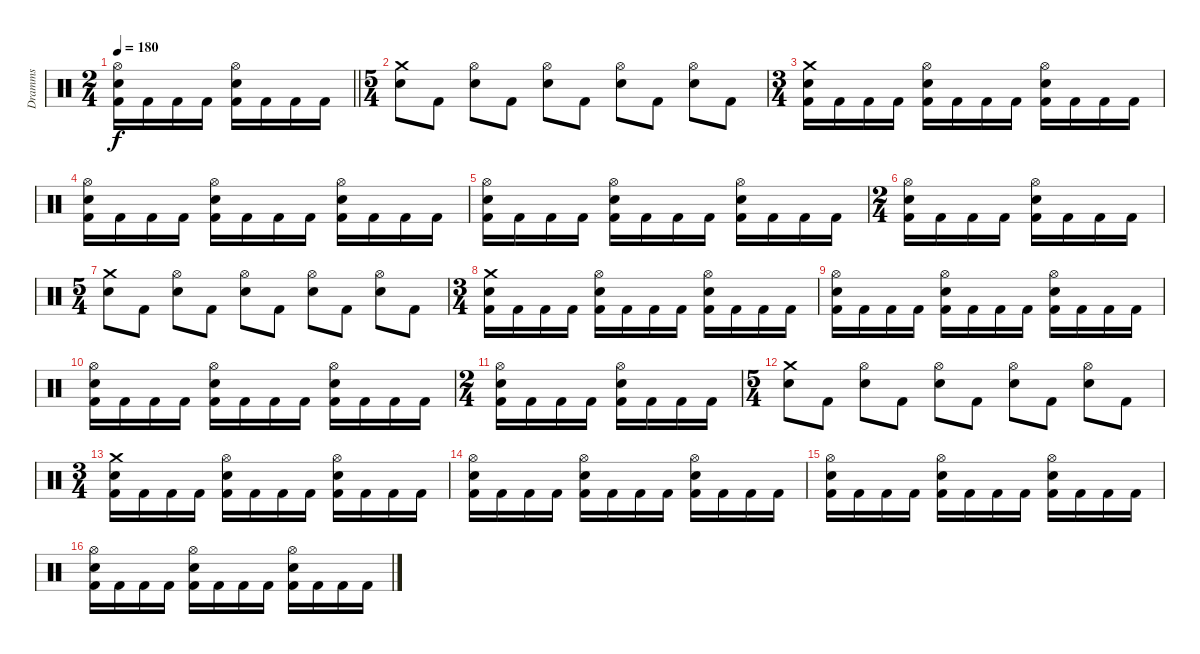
\track ("Dramms" "Dramms") {instrument percussion}
\staff {score}
\articulation defaults
\ts (2 4)
\tempo 180
\clef neutral
\barLineRight lightlight
\ks c
("Hi-Hat (open)" "Electric Snare (hit)" "Kick (hit) 2").16{dy f} "Kick (hit) 2".16 "Kick (hit) 2".16 "Kick (hit) 2".16 ("Hi-Hat (open)" "Electric Snare (hit)" "Kick (hit) 2").16 "Kick (hit) 2".16 "Kick (hit) 2".16 "Kick (hit) 2".16 |
\ts (5 4)
("Crash medium (hit)" "Electric Snare (hit)").8 "Kick (hit) 2".8 ("Hi-Hat (open)" "Electric Snare (hit)").8 "Kick (hit) 2".8 ("Hi-Hat (open)" "Electric Snare (hit)").8 "Kick (hit) 2".8 ("Hi-Hat (open)" "Electric Snare (hit)").8 "Kick (hit) 2".8 ("Hi-Hat (open)" "Electric Snare (hit)").8 "Kick (hit) 2".8 |
\ts (3 4)
("Crash medium (hit)" "Electric Snare (hit)" "Kick (hit) 2").16 "Kick (hit) 2".16 "Kick (hit) 2".16 "Kick (hit) 2".16 ("Hi-Hat (open)" "Electric Snare (hit)" "Kick (hit) 2").16 "Kick (hit) 2".16 "Kick (hit) 2".16 "Kick (hit) 2".16 ("Hi-Hat (open)" "Electric Snare (hit)" "Kick (hit) 2").16 "Kick (hit) 2".16 "Kick (hit) 2".16 "Kick (hit) 2".16 |
("Hi-Hat (open)" "Electric Snare (hit)" "Kick (hit) 2").16 "Kick (hit) 2".16 "Kick (hit) 2".16 "Kick (hit) 2".16 ("Hi-Hat (open)" "Electric Snare (hit)" "Kick (hit) 2").16 "Kick (hit) 2".16 "Kick (hit) 2".16 "Kick (hit) 2".16 ("Hi-Hat (open)" "Electric Snare (hit)" "Kick (hit) 2").16 "Kick (hit) 2".16 "Kick (hit) 2".16 "Kick (hit) 2".16 |
("Hi-Hat (open)" "Electric Snare (hit)" "Kick (hit) 2").16 "Kick (hit) 2".16 "Kick (hit) 2".16 "Kick (hit) 2".16 ("Hi-Hat (open)" "Electric Snare (hit)" "Kick (hit) 2").16 "Kick (hit) 2".16 "Kick (hit) 2".16 "Kick (hit) 2".16 ("Hi-Hat (open)" "Electric Snare (hit)" "Kick (hit) 2").16 "Kick (hit) 2".16 "Kick (hit) 2".16 "Kick (hit) 2".16 |
\ts (2 4)
("Hi-Hat (open)" "Electric Snare (hit)" "Kick (hit) 2").16 "Kick (hit) 2".16 "Kick (hit) 2".16 "Kick (hit) 2".16 ("Hi-Hat (open)" "Electric Snare (hit)" "Kick (hit) 2").16 "Kick (hit) 2".16 "Kick (hit) 2".16 "Kick (hit) 2".16 |
\ts (5 4)
("Crash medium (hit)" "Electric Snare (hit)").8 "Kick (hit) 2".8 ("Hi-Hat (open)" "Electric Snare (hit)").8 "Kick (hit) 2".8 ("Hi-Hat (open)" "Electric Snare (hit)").8 "Kick (hit) 2".8 ("Hi-Hat (open)" "Electric Snare (hit)").8 "Kick (hit) 2".8 ("Hi-Hat (open)" "Electric Snare (hit)").8 "Kick (hit) 2".8 |
\ts (3 4)
("Crash medium (hit)" "Electric Snare (hit)" "Kick (hit) 2").16 "Kick (hit) 2".16 "Kick (hit) 2".16 "Kick (hit) 2".16 ("Hi-Hat (open)" "Electric Snare (hit)" "Kick (hit) 2").16 "Kick (hit) 2".16 "Kick (hit) 2".16 "Kick (hit) 2".16 ("Hi-Hat (open)" "Electric Snare (hit)" "Kick (hit) 2").16 "Kick (hit) 2".16 "Kick (hit) 2".16 "Kick (hit) 2".16 |
("Hi-Hat (open)" "Electric Snare (hit)" "Kick (hit) 2").16 "Kick (hit) 2".16 "Kick (hit) 2".16 "Kick (hit) 2".16 ("Hi-Hat (open)" "Electric Snare (hit)" "Kick (hit) 2").16 "Kick (hit) 2".16 "Kick (hit) 2".16 "Kick (hit) 2".16 ("Hi-Hat (open)" "Electric Snare (hit)" "Kick (hit) 2").16 "Kick (hit) 2".16 "Kick (hit) 2".16 "Kick (hit) 2".16 |
("Hi-Hat (open)" "Electric Snare (hit)" "Kick (hit) 2").16 "Kick (hit) 2".16 "Kick (hit) 2".16 "Kick (hit) 2".16 ("Hi-Hat (open)" "Electric Snare (hit)" "Kick (hit) 2").16 "Kick (hit) 2".16 "Kick (hit) 2".16 "Kick (hit) 2".16 ("Hi-Hat (open)" "Electric Snare (hit)" "Kick (hit) 2").16 "Kick (hit) 2".16 "Kick (hit) 2".16 "Kick (hit) 2".16 |
\ts (2 4)
("Hi-Hat (open)" "Electric Snare (hit)" "Kick (hit) 2").16 "Kick (hit) 2".16 "Kick (hit) 2".16 "Kick (hit) 2".16 ("Hi-Hat (open)" "Electric Snare (hit)" "Kick (hit) 2").16 "Kick (hit) 2".16 "Kick (hit) 2".16 "Kick (hit) 2".16 |
\ts (5 4)
("Crash medium (hit)" "Electric Snare (hit)").8 "Kick (hit) 2".8 ("Hi-Hat (open)" "Electric Snare (hit)").8 "Kick (hit) 2".8 ("Hi-Hat (open)" "Electric Snare (hit)").8 "Kick (hit) 2".8 ("Hi-Hat (open)" "Electric Snare (hit)").8 "Kick (hit) 2".8 ("Hi-Hat (open)" "Electric Snare (hit)").8 "Kick (hit) 2".8 |
\ts (3 4)
("Crash medium (hit)" "Electric Snare (hit)" "Kick (hit) 2").16 "Kick (hit) 2".16 "Kick (hit) 2".16 "Kick (hit) 2".16 ("Hi-Hat (open)" "Electric Snare (hit)" "Kick (hit) 2").16 "Kick (hit) 2".16 "Kick (hit) 2".16 "Kick (hit) 2".16 ("Hi-Hat (open)" "Electric Snare (hit)" "Kick (hit) 2").16 "Kick (hit) 2".16 "Kick (hit) 2".16 "Kick (hit) 2".16 |
("Hi-Hat (open)" "Electric Snare (hit)" "Kick (hit) 2").16 "Kick (hit) 2".16 "Kick (hit) 2".16 "Kick (hit) 2".16 ("Hi-Hat (open)" "Electric Snare (hit)" "Kick (hit) 2").16 "Kick (hit) 2".16 "Kick (hit) 2".16 "Kick (hit) 2".16 ("Hi-Hat (open)" "Electric Snare (hit)" "Kick (hit) 2").16 "Kick (hit) 2".16 "Kick (hit) 2".16 "Kick (hit) 2".16 |
("Hi-Hat (open)" "Electric Snare (hit)" "Kick (hit) 2").16 "Kick (hit) 2".16 "Kick (hit) 2".16 "Kick (hit) 2".16 ("Hi-Hat (open)" "Electric Snare (hit)" "Kick (hit) 2").16 "Kick (hit) 2".16 "Kick (hit) 2".16 "Kick (hit) 2".16 ("Hi-Hat (open)" "Electric Snare (hit)" "Kick (hit) 2").16 "Kick (hit) 2".16 "Kick (hit) 2".16 "Kick (hit) 2".16 |
("Hi-Hat (open)" "Electric Snare (hit)" "Kick (hit) 2").16 "Kick (hit) 2".16 "Kick (hit) 2".16 "Kick (hit) 2".16 ("Hi-Hat (open)" "Electric Snare (hit)" "Kick (hit) 2").16 "Kick (hit) 2".16 "Kick (hit) 2".16 "Kick (hit) 2".16 ("Hi-Hat (open)" "Electric Snare (hit)" "Kick (hit) 2").16 "Kick (hit) 2".16 "Kick (hit) 2".16 "Kick (hit) 2".16
